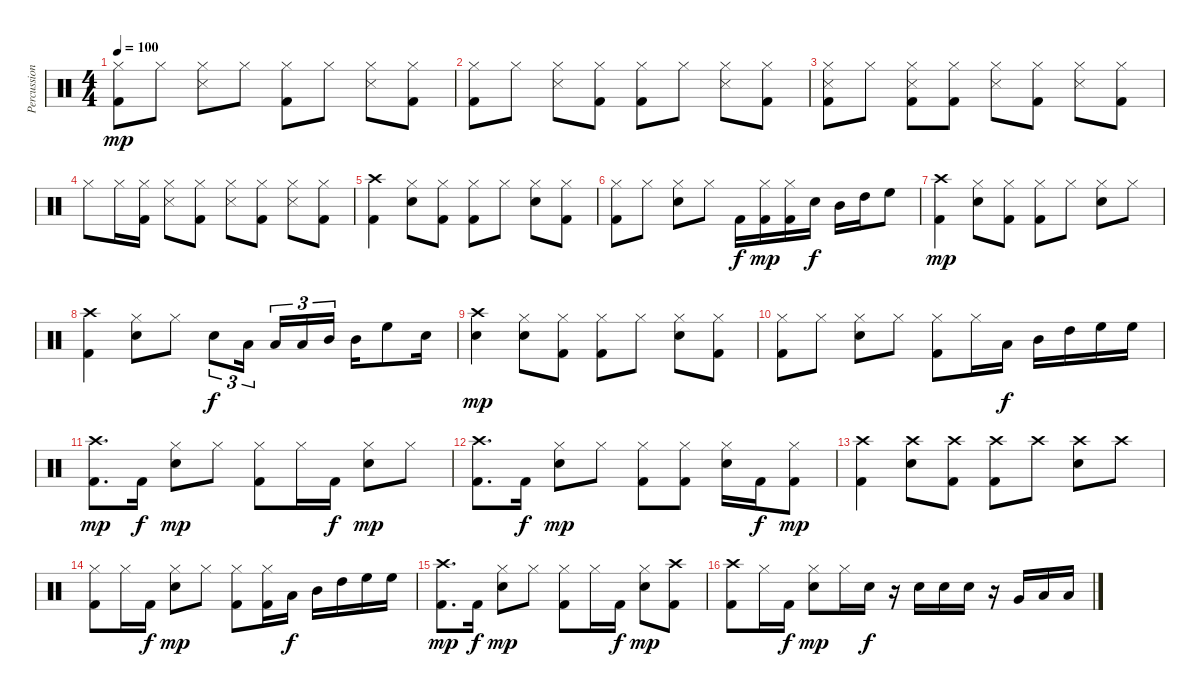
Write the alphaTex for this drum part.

\track ("Percussion" "Percussion") {instrument percussion}
\staff {score}
\articulation defaults
\ts (4 4)
\tempo 100
\clef neutral
\ks c
("Kick (hit) 2" "Hi-Hat (closed)").8{dy mp} "Hi-Hat (closed)".8 ("Hi-Hat (closed)" "Snare (side stick) 3").8 "Hi-Hat (closed)".8 ("Kick (hit) 2" "Hi-Hat (closed)").8 "Hi-Hat (closed)".8 ("Hi-Hat (closed)" "Snare (side stick) 3").8 ("Kick (hit) 2" "Hi-Hat (closed)").8 |
("Kick (hit) 2" "Hi-Hat (closed)").8 "Hi-Hat (closed)".8 ("Hi-Hat (closed)" "Snare (side stick) 3").8 ("Kick (hit) 2" "Hi-Hat (closed)").8 ("Kick (hit) 2" "Hi-Hat (closed)").8 "Hi-Hat (closed)".8 ("Hi-Hat (closed)" "Snare (side stick) 3").8 ("Kick (hit) 2" "Hi-Hat (closed)").8 |
("Kick (hit) 2" "Hi-Hat (closed)" "Snare (side stick) 3").8 "Hi-Hat (closed)".8 ("Kick (hit) 2" "Hi-Hat (closed)" "Snare (side stick) 3").8 ("Kick (hit) 2" "Hi-Hat (closed)").8 ("Hi-Hat (closed)" "Snare (side stick) 3").8 ("Kick (hit) 2" "Hi-Hat (closed)").8 ("Hi-Hat (closed)" "Snare (side stick) 3").8 ("Kick (hit) 2" "Hi-Hat (closed)").8 |
"Hi-Hat (closed)".8 "Hi-Hat (closed)".16 ("Kick (hit) 2" "Hi-Hat (closed)").16 ("Hi-Hat (closed)" "Snare (side stick) 3").8 ("Kick (hit) 2" "Hi-Hat (closed)").8 ("Hi-Hat (closed)" "Snare (side stick) 3").8 ("Kick (hit) 2" "Hi-Hat (closed)").8 ("Hi-Hat (closed)" "Snare (side stick) 3").8 ("Kick (hit) 2" "Hi-Hat (closed)").8 |
("Kick (hit) 2" "Crash high (hit)").4 ("Snare (hit) 2" "Hi-Hat (closed)").8 ("Kick (hit) 2" "Hi-Hat (closed)").8 ("Kick (hit) 2" "Hi-Hat (closed)").8 "Hi-Hat (closed)".8 ("Snare (hit) 2" "Hi-Hat (closed)").8 ("Kick (hit) 2" "Hi-Hat (closed)").8 |
("Kick (hit) 2" "Hi-Hat (closed)").8 "Hi-Hat (closed)".8 ("Snare (hit) 2" "Hi-Hat (closed)").8 "Hi-Hat (closed)".8 "Kick (hit) 2".16{dy f} ("Kick (hit) 2" "Hi-Hat (closed)").16{dy mp} ("Kick (hit) 2" "Hi-Hat (closed)").16 "Snare (hit) 2".16{dy f} "Mid Tom (hit)".16 "High Tom (hit)".16 "High Floor Tom (hit)".8 |
("Kick (hit) 2" "Crash high (hit)").4{dy mp} ("Snare (hit) 2" "Hi-Hat (closed)").8 ("Kick (hit) 2" "Hi-Hat (closed)").8 ("Kick (hit) 2" "Hi-Hat (closed)").8 "Hi-Hat (closed)".8 ("Snare (hit) 2" "Hi-Hat (closed)").8 "Hi-Hat (closed)".8 |
("Kick (hit) 2" "Crash high (hit)").4 ("Snare (hit) 2" "Hi-Hat (closed)").8 "Hi-Hat (closed)".8 "Snare (hit) 2".8{tu (3 2) dy f} "Low Tom (hit)".16{tu (3 2)} "Low Tom (hit)".16{tu (3 2)} "Low Tom (hit)".16{tu (3 2)} "Mid Tom (hit)".16{tu (3 2)} "Mid Tom (hit)".16 "High Floor Tom (hit)".8 "Snare (hit) 2".16 |
("Snare (hit) 2" "Crash high (hit)").4{dy mp} ("Snare (hit) 2" "Hi-Hat (closed)").8 ("Kick (hit) 2" "Hi-Hat (closed)").8 ("Kick (hit) 2" "Hi-Hat (closed)").8 "Hi-Hat (closed)".8 ("Snare (hit) 2" "Hi-Hat (closed)").8 ("Kick (hit) 2" "Hi-Hat (closed)").8 |
("Kick (hit) 2" "Hi-Hat (closed)").8 "Hi-Hat (closed)".8 ("Snare (hit) 2" "Hi-Hat (closed)").8 "Hi-Hat (closed)".8 ("Kick (hit) 2" "Hi-Hat (closed)").8 "Hi-Hat (closed)".16 "Low Tom (hit)".16{dy f} "Mid Tom (hit)".16 "High Tom (hit)".16 "High Floor Tom (hit)".16 "High Floor Tom (hit)".16 |
("Kick (hit) 2" "Crash high (hit)").8{d dy mp} "Kick (hit) 2".16{dy f} ("Snare (hit) 2" "Hi-Hat (closed)").8{dy mp} "Hi-Hat (closed)".8 ("Kick (hit) 2" "Hi-Hat (closed)").8 "Hi-Hat (closed)".16 "Kick (hit) 2".16{dy f} ("Snare (hit) 2" "Hi-Hat (closed)").8{dy mp} "Hi-Hat (closed)".8 |
("Kick (hit) 2" "Crash high (hit)").8{d} "Kick (hit) 2".16{dy f} ("Snare (hit) 2" "Hi-Hat (closed)").8{dy mp} "Hi-Hat (closed)".8 ("Kick (hit) 2" "Hi-Hat (closed)").8 ("Kick (hit) 2" "Hi-Hat (closed)").8 ("Snare (hit) 2" "Hi-Hat (closed)").16 "Kick (hit) 2".16{dy f} ("Kick (hit) 2" "Hi-Hat (closed)").8{dy mp} |
("Kick (hit) 2" "Crash high (hit)").4 ("Snare (hit) 2" "Crash high (hit)").8 ("Kick (hit) 2" "Crash high (hit)").8 ("Kick (hit) 2" "Crash high (hit)").8 "Crash high (hit)".8 ("Snare (hit) 2" "Crash high (hit)").8 "Crash high (hit)".8 |
("Kick (hit) 2" "Hi-Hat (closed)").8 "Hi-Hat (closed)".16 "Kick (hit) 2".16{dy f} ("Snare (hit) 2" "Hi-Hat (closed)").8{dy mp} "Hi-Hat (closed)".8 ("Kick (hit) 2" "Hi-Hat (closed)").8 ("Kick (hit) 2" "Hi-Hat (closed)").16 "Low Tom (hit)".16{dy f} "Mid Tom (hit)".16 "High Tom (hit)".16 "High Floor Tom (hit)".16 "High Floor Tom (hit)".16 |
("Kick (hit) 2" "Crash high (hit)").8{d dy mp} "Kick (hit) 2".16{dy f} ("Snare (hit) 2" "Hi-Hat (closed)").8{dy mp} "Hi-Hat (closed)".8 ("Kick (hit) 2" "Hi-Hat (closed)").8 "Hi-Hat (closed)".16 "Kick (hit) 2".16{dy f} ("Snare (hit) 2" "Hi-Hat (closed)").8{dy mp} ("Kick (hit) 2" "Crash high (hit)").8 |
("Kick (hit) 2" "Crash high (hit)").8 "Hi-Hat (closed)".16 "Kick (hit) 2".16{dy f} ("Snare (hit) 2" "Hi-Hat (closed)").8{dy mp} "Hi-Hat (closed)".16 "Snare (hit) 2".16{dy f} r.16 "Snare (hit) 2".16 "Snare (hit) 2".16 "Snare (hit) 2".16 r.16 "Very Low Tom (hit)".16 "Low Floor Tom (hit)".16 "Low Tom (hit)".16
